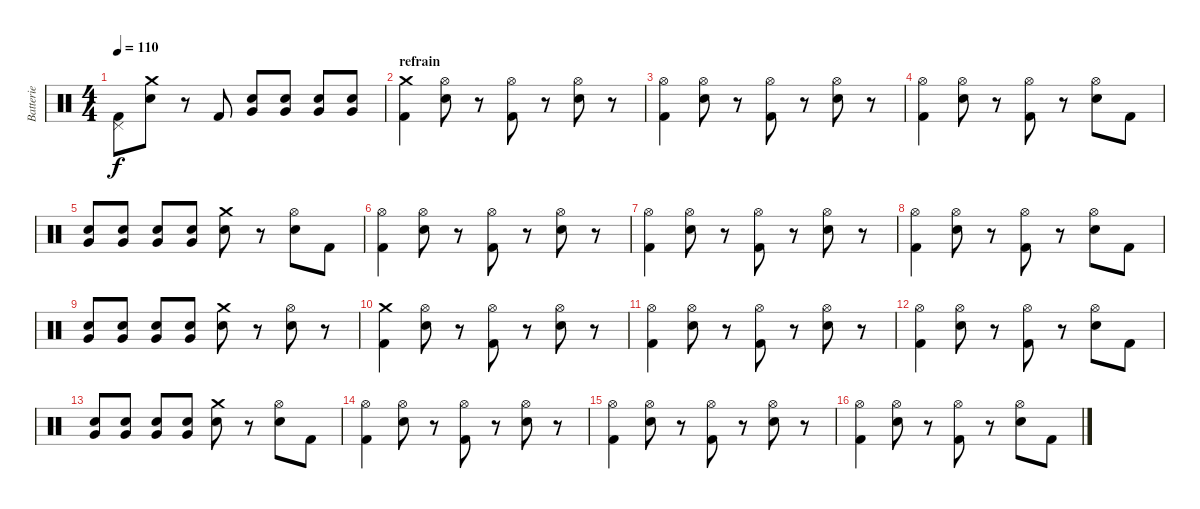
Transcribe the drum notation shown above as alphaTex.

\track ("Batterie" "Batterie") {instrument percussion}
\staff {score}
\articulation defaults
\ts (4 4)
\tempo 110
\clef neutral
\ks c
("Pedal Hi-Hat (hit)" "Kick (hit) 2").8{dy f} ("Crash medium (hit)" "Electric Snare (hit)").8 r.8 "Kick (hit) 2".8 ("Very Low Tom (hit)" "Electric Snare (hit)").8 ("Very Low Tom (hit)" "Electric Snare (hit)").8 ("Very Low Tom (hit)" "Electric Snare (hit)").8 ("Very Low Tom (hit)" "Electric Snare (hit)").8 |
\section ("" "refrain")
("Crash medium (hit)" "Kick (hit) 2").4 ("Hi-Hat (open)" "Electric Snare (hit)").8 r.8 ("Hi-Hat (open)" "Kick (hit) 2").8 r.8 ("Hi-Hat (open)" "Electric Snare (hit)").8 r.8 |
("Hi-Hat (open)" "Kick (hit) 2").4 ("Hi-Hat (open)" "Electric Snare (hit)").8 r.8 ("Hi-Hat (open)" "Kick (hit) 2").8 r.8 ("Hi-Hat (open)" "Electric Snare (hit)").8 r.8 |
("Hi-Hat (open)" "Kick (hit) 2").4 ("Hi-Hat (open)" "Electric Snare (hit)").8 r.8 ("Hi-Hat (open)" "Kick (hit) 2").8 r.8 ("Hi-Hat (open)" "Electric Snare (hit)").8 "Kick (hit) 2".8 |
("Very Low Tom (hit)" "Electric Snare (hit)").8 ("Very Low Tom (hit)" "Electric Snare (hit)").8 ("Very Low Tom (hit)" "Electric Snare (hit)").8 ("Very Low Tom (hit)" "Electric Snare (hit)").8 ("Crash medium (hit)" "Electric Snare (hit)").8 r.8 ("Hi-Hat (open)" "Electric Snare (hit)").8 "Kick (hit) 2".8 |
("Hi-Hat (open)" "Kick (hit) 2").4 ("Hi-Hat (open)" "Electric Snare (hit)").8 r.8 ("Hi-Hat (open)" "Kick (hit) 2").8 r.8 ("Hi-Hat (open)" "Electric Snare (hit)").8 r.8 |
("Hi-Hat (open)" "Kick (hit) 2").4 ("Hi-Hat (open)" "Electric Snare (hit)").8 r.8 ("Hi-Hat (open)" "Kick (hit) 2").8 r.8 ("Hi-Hat (open)" "Electric Snare (hit)").8 r.8 |
("Hi-Hat (open)" "Kick (hit) 2").4 ("Hi-Hat (open)" "Electric Snare (hit)").8 r.8 ("Hi-Hat (open)" "Kick (hit) 2").8 r.8 ("Hi-Hat (open)" "Electric Snare (hit)").8 "Kick (hit) 2".8 |
("Very Low Tom (hit)" "Electric Snare (hit)").8 ("Very Low Tom (hit)" "Electric Snare (hit)").8 ("Very Low Tom (hit)" "Electric Snare (hit)").8 ("Very Low Tom (hit)" "Electric Snare (hit)").8 ("Crash medium (hit)" "Electric Snare (hit)").8 r.8 ("Hi-Hat (open)" "Electric Snare (hit)").8 r.8 |
("Crash medium (hit)" "Kick (hit) 2").4 ("Hi-Hat (open)" "Electric Snare (hit)").8 r.8 ("Hi-Hat (open)" "Kick (hit) 2").8 r.8 ("Hi-Hat (open)" "Electric Snare (hit)").8 r.8 |
("Hi-Hat (open)" "Kick (hit) 2").4 ("Hi-Hat (open)" "Electric Snare (hit)").8 r.8 ("Hi-Hat (open)" "Kick (hit) 2").8 r.8 ("Hi-Hat (open)" "Electric Snare (hit)").8 r.8 |
("Hi-Hat (open)" "Kick (hit) 2").4 ("Hi-Hat (open)" "Electric Snare (hit)").8 r.8 ("Hi-Hat (open)" "Kick (hit) 2").8 r.8 ("Hi-Hat (open)" "Electric Snare (hit)").8 "Kick (hit) 2".8 |
("Very Low Tom (hit)" "Electric Snare (hit)").8 ("Very Low Tom (hit)" "Electric Snare (hit)").8 ("Very Low Tom (hit)" "Electric Snare (hit)").8 ("Very Low Tom (hit)" "Electric Snare (hit)").8 ("Crash medium (hit)" "Electric Snare (hit)").8 r.8 ("Hi-Hat (open)" "Electric Snare (hit)").8 "Kick (hit) 2".8 |
("Hi-Hat (open)" "Kick (hit) 2").4 ("Hi-Hat (open)" "Electric Snare (hit)").8 r.8 ("Hi-Hat (open)" "Kick (hit) 2").8 r.8 ("Hi-Hat (open)" "Electric Snare (hit)").8 r.8 |
("Hi-Hat (open)" "Kick (hit) 2").4 ("Hi-Hat (open)" "Electric Snare (hit)").8 r.8 ("Hi-Hat (open)" "Kick (hit) 2").8 r.8 ("Hi-Hat (open)" "Electric Snare (hit)").8 r.8 |
("Hi-Hat (open)" "Kick (hit) 2").4 ("Hi-Hat (open)" "Electric Snare (hit)").8 r.8 ("Hi-Hat (open)" "Kick (hit) 2").8 r.8 ("Hi-Hat (open)" "Electric Snare (hit)").8 "Kick (hit) 2".8
